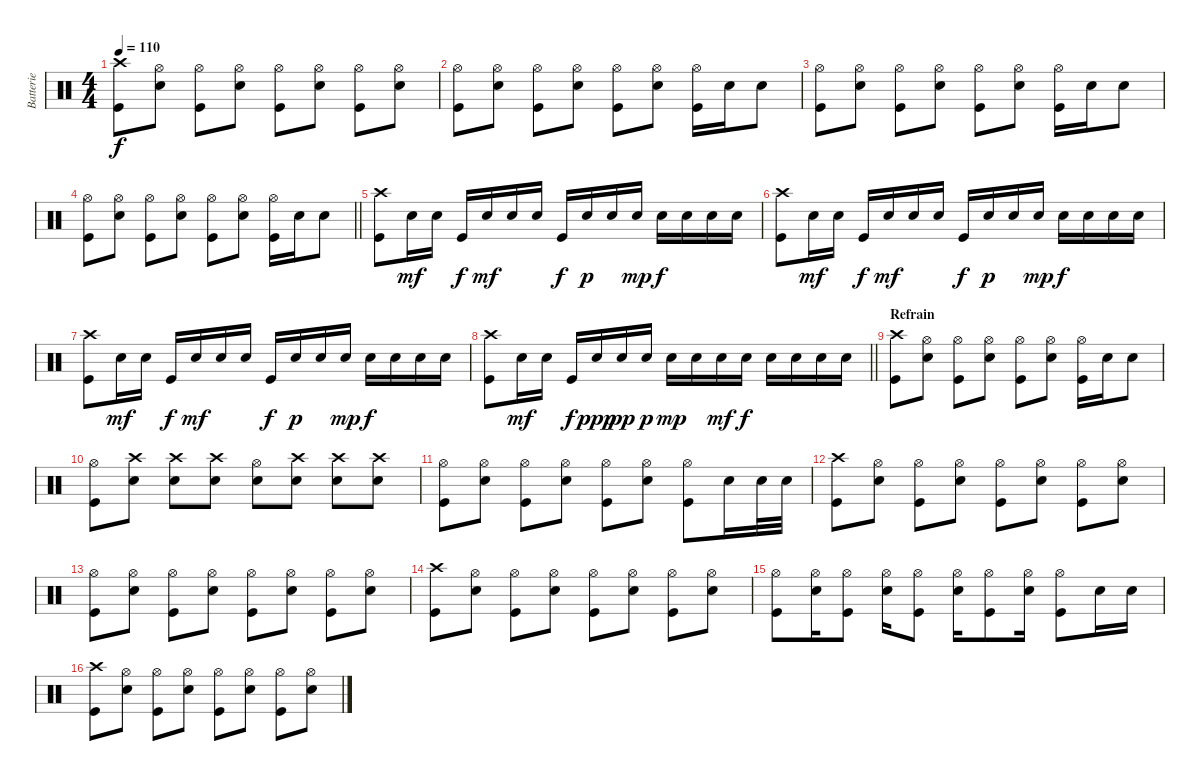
\track ("Batterie" "Batterie") {instrument percussion}
\staff {score}
\articulation defaults
\ts (4 4)
\tempo 110
\clef neutral
\ks c
("Kick (hit)" "Crash high (hit)").8{dy f} ("Snare (hit) 2" "Hi-Hat (open)").8 ("Kick (hit)" "Hi-Hat (open)").8 ("Snare (hit) 2" "Hi-Hat (open)").8 ("Kick (hit)" "Hi-Hat (open)").8 ("Snare (hit) 2" "Hi-Hat (open)").8 ("Kick (hit)" "Hi-Hat (open)").8 ("Snare (hit) 2" "Hi-Hat (open)").8 |
("Kick (hit)" "Hi-Hat (open)").8 ("Snare (hit) 2" "Hi-Hat (open)").8 ("Kick (hit)" "Hi-Hat (open)").8 ("Snare (hit) 2" "Hi-Hat (open)").8 ("Kick (hit)" "Hi-Hat (open)").8 ("Snare (hit) 2" "Hi-Hat (open)").8 ("Kick (hit)" "Hi-Hat (open)").16 "Snare (hit) 2".16 "Snare (hit) 2".8 |
("Kick (hit)" "Hi-Hat (open)").8 ("Snare (hit) 2" "Hi-Hat (open)").8 ("Kick (hit)" "Hi-Hat (open)").8 ("Snare (hit) 2" "Hi-Hat (open)").8 ("Kick (hit)" "Hi-Hat (open)").8 ("Snare (hit) 2" "Hi-Hat (open)").8 ("Kick (hit)" "Hi-Hat (open)").16 "Snare (hit) 2".16 "Snare (hit) 2".8 |
\barLineRight lightlight
("Kick (hit)" "Hi-Hat (open)").8 ("Snare (hit) 2" "Hi-Hat (open)").8 ("Kick (hit)" "Hi-Hat (open)").8 ("Snare (hit) 2" "Hi-Hat (open)").8 ("Kick (hit)" "Hi-Hat (open)").8 ("Snare (hit) 2" "Hi-Hat (open)").8 ("Kick (hit)" "Hi-Hat (open)").16 "Snare (hit) 2".16 "Snare (hit) 2".8 |
("Crash high (hit)" "Kick (hit)").8 "Snare (hit) 2".16{dy mf} "Snare (hit) 2".16 "Kick (hit)".16{dy f} "Snare (hit) 2".16{dy mf} "Snare (hit) 2".16 "Snare (hit) 2".16 "Kick (hit)".16{dy f} "Snare (hit) 2".16{dy p} "Snare (hit) 2".16 "Snare (hit) 2".16{dy mp} "Snare (hit) 2".16{dy f} "Snare (hit) 2".16 "Snare (hit) 2".16 "Snare (hit) 2".16 |
("Crash high (hit)" "Kick (hit)").8 "Snare (hit) 2".16{dy mf} "Snare (hit) 2".16 "Kick (hit)".16{dy f} "Snare (hit) 2".16{dy mf} "Snare (hit) 2".16 "Snare (hit) 2".16 "Kick (hit)".16{dy f} "Snare (hit) 2".16{dy p} "Snare (hit) 2".16 "Snare (hit) 2".16{dy mp} "Snare (hit) 2".16{dy f} "Snare (hit) 2".16 "Snare (hit) 2".16 "Snare (hit) 2".16 |
("Crash high (hit)" "Kick (hit)").8 "Snare (hit) 2".16{dy mf} "Snare (hit) 2".16 "Kick (hit)".16{dy f} "Snare (hit) 2".16{dy mf} "Snare (hit) 2".16 "Snare (hit) 2".16 "Kick (hit)".16{dy f} "Snare (hit) 2".16{dy p} "Snare (hit) 2".16 "Snare (hit) 2".16{dy mp} "Snare (hit) 2".16{dy f} "Snare (hit) 2".16 "Snare (hit) 2".16 "Snare (hit) 2".16 |
\barLineRight lightlight
("Crash high (hit)" "Kick (hit)").8 "Snare (hit) 2".16{dy mf} "Snare (hit) 2".16 "Kick (hit)".16{dy f} "Snare (hit) 2".16{dy ppp} "Snare (hit) 2".16{dy pp} "Snare (hit) 2".16{dy p} "Snare (hit) 2".16{dy mp} "Snare (hit) 2".16 "Snare (hit) 2".16{dy mf} "Snare (hit) 2".16{dy f} "Snare (hit) 2".16 "Snare (hit) 2".16 "Snare (hit) 2".16 "Snare (hit) 2".16 |
\section ("" "Refrain")
("Kick (hit)" "Crash high (hit)").8 ("Snare (hit) 2" "Hi-Hat (open)").8 ("Kick (hit)" "Hi-Hat (open)").8 ("Snare (hit) 2" "Hi-Hat (open)").8 ("Kick (hit)" "Hi-Hat (open)").8 ("Snare (hit) 2" "Hi-Hat (open)").8 ("Kick (hit)" "Hi-Hat (open)").16 "Snare (hit) 2".16 "Snare (hit) 2".8 |
("Kick (hit)" "Hi-Hat (open)").8 ("Crash high (hit)" "Snare (hit) 2").8 ("Crash high (hit)" "Snare (hit) 2").8 ("Crash high (hit)" "Snare (hit) 2").8 ("Snare (hit) 2" "Hi-Hat (open)").8 ("Crash high (hit)" "Snare (hit) 2").8 ("Crash high (hit)" "Snare (hit) 2").8 ("Crash high (hit)" "Snare (hit) 2").8 |
("Kick (hit)" "Hi-Hat (open)").8 ("Snare (hit) 2" "Hi-Hat (open)").8 ("Kick (hit)" "Hi-Hat (open)").8 ("Snare (hit) 2" "Hi-Hat (open)").8 ("Kick (hit)" "Hi-Hat (open)").8 ("Snare (hit) 2" "Hi-Hat (open)").8 ("Kick (hit)" "Hi-Hat (open)").8 "Snare (hit) 2".16 "Snare (hit) 2".32 "Snare (hit) 2".32 |
("Kick (hit)" "Crash high (hit)").8 ("Snare (hit) 2" "Hi-Hat (open)").8 ("Kick (hit)" "Hi-Hat (open)").8 ("Snare (hit) 2" "Hi-Hat (open)").8 ("Kick (hit)" "Hi-Hat (open)").8 ("Snare (hit) 2" "Hi-Hat (open)").8 ("Kick (hit)" "Hi-Hat (open)").8 ("Snare (hit) 2" "Hi-Hat (open)").8 |
("Kick (hit)" "Hi-Hat (open)").8 ("Snare (hit) 2" "Hi-Hat (open)").8 ("Kick (hit)" "Hi-Hat (open)").8 ("Snare (hit) 2" "Hi-Hat (open)").8 ("Kick (hit)" "Hi-Hat (open)").8 ("Snare (hit) 2" "Hi-Hat (open)").8 ("Kick (hit)" "Hi-Hat (open)").8 ("Snare (hit) 2" "Hi-Hat (open)").8 |
("Kick (hit)" "Crash high (hit)").8 ("Snare (hit) 2" "Hi-Hat (open)").8 ("Kick (hit)" "Hi-Hat (open)").8 ("Snare (hit) 2" "Hi-Hat (open)").8 ("Kick (hit)" "Hi-Hat (open)").8 ("Snare (hit) 2" "Hi-Hat (open)").8 ("Kick (hit)" "Hi-Hat (open)").8 ("Snare (hit) 2" "Hi-Hat (open)").8 |
("Kick (hit)" "Hi-Hat (open)").8 ("Snare (hit) 2" "Hi-Hat (open)").16 ("Kick (hit)" "Hi-Hat (open)").8 ("Snare (hit) 2" "Hi-Hat (open)").16 ("Hi-Hat (open)" "Kick (hit)").8 ("Snare (hit) 2" "Hi-Hat (open)").16 ("Hi-Hat (open)" "Kick (hit)").8 ("Snare (hit) 2" "Hi-Hat (open)").16 ("Kick (hit)" "Hi-Hat (open)").8 "Snare (hit) 2".16 "Snare (hit) 2".16 |
("Kick (hit)" "Crash high (hit)").8 ("Snare (hit) 2" "Hi-Hat (open)").8 ("Kick (hit)" "Hi-Hat (open)").8 ("Snare (hit) 2" "Hi-Hat (open)").8 ("Kick (hit)" "Hi-Hat (open)").8 ("Snare (hit) 2" "Hi-Hat (open)").8 ("Kick (hit)" "Hi-Hat (open)").8 ("Snare (hit) 2" "Hi-Hat (open)").8
